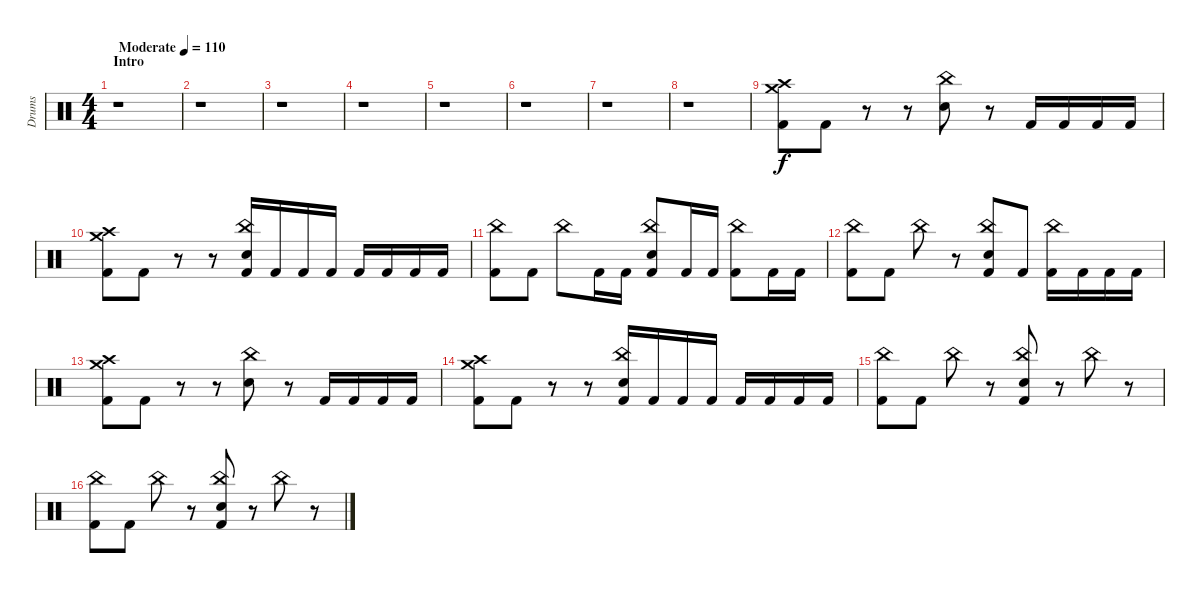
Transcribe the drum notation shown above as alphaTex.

\track ("Drums" "Drums") {instrument percussion}
\staff {score}
\articulation defaults
\ts (4 4)
\section ("" "Intro")
\tempo (110 "Moderate")
\clef neutral
\ks c
r.1{dy f} |
r.1 |
r.1 |
r.1 |
r.1 |
r.1 |
r.1 |
r.1 |
("Crash high (hit)" "Crash medium (hit)" "Kick (hit) 2").8 "Kick (hit) 2".8 r.8 r.8 ("China (hit)" "Electric Snare (hit)").8 r.8 "Kick (hit) 2".16 "Kick (hit) 2".16 "Kick (hit) 2".16 "Kick (hit) 2".16 |
("Crash high (hit)" "Crash medium (hit)" "Kick (hit) 2").8 "Kick (hit) 2".8 r.8 r.8 ("China (hit)" "Electric Snare (hit)" "Kick (hit) 2").16 "Kick (hit) 2".16 "Kick (hit) 2".16 "Kick (hit) 2".16 "Kick (hit) 2".16 "Kick (hit) 2".16 "Kick (hit) 2".16 "Kick (hit) 2".16 |
("China (hit)" "Kick (hit) 2").8 "Kick (hit) 2".8 "China (hit)".8 "Kick (hit) 2".16 "Kick (hit) 2".16 ("China (hit)" "Electric Snare (hit)" "Kick (hit) 2").8 "Kick (hit) 2".16 "Kick (hit) 2".16 ("China (hit)" "Kick (hit) 2").8 "Kick (hit) 2".16 "Kick (hit) 2".16 |
("China (hit)" "Kick (hit) 2").8 "Kick (hit) 2".8 "China (hit)".8 r.8 ("China (hit)" "Electric Snare (hit)" "Kick (hit) 2").8 "Kick (hit) 2".8 ("China (hit)" "Kick (hit) 2").16 "Kick (hit) 2".16 "Kick (hit) 2".16 "Kick (hit) 2".16 |
("Crash high (hit)" "Crash medium (hit)" "Kick (hit) 2").8 "Kick (hit) 2".8 r.8 r.8 ("China (hit)" "Electric Snare (hit)").8 r.8 "Kick (hit) 2".16 "Kick (hit) 2".16 "Kick (hit) 2".16 "Kick (hit) 2".16 |
("Crash high (hit)" "Crash medium (hit)" "Kick (hit) 2").8 "Kick (hit) 2".8 r.8 r.8 ("China (hit)" "Electric Snare (hit)" "Kick (hit) 2").16 "Kick (hit) 2".16 "Kick (hit) 2".16 "Kick (hit) 2".16 "Kick (hit) 2".16 "Kick (hit) 2".16 "Kick (hit) 2".16 "Kick (hit) 2".16 |
("China (hit)" "Kick (hit) 2").8 "Kick (hit) 2".8 "China (hit)".8 r.8 ("China (hit)" "Electric Snare (hit)" "Kick (hit) 2").8 r.8 "China (hit)".8 r.8 |
("China (hit)" "Kick (hit) 2").8 "Kick (hit) 2".8 "China (hit)".8 r.8 ("China (hit)" "Electric Snare (hit)" "Kick (hit) 2").8 r.8 "China (hit)".8 r.8
